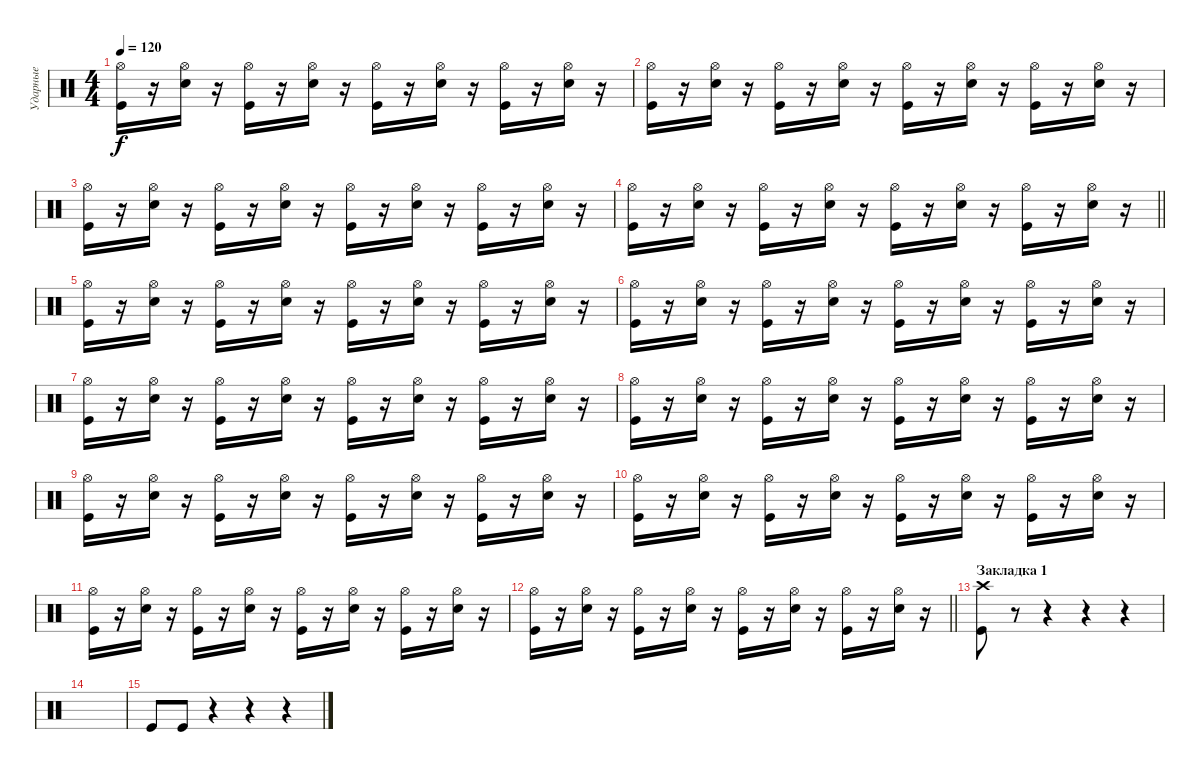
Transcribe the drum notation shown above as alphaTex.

\track ("Ударные" "Ударные") {instrument percussion}
\staff {score}
\articulation defaults
\ts (4 4)
\tempo 120
\clef neutral
\ks c
("Hi-Hat (open)" "Kick (hit)").16{dy f} r.16 ("Hi-Hat (open)" "Snare (hit) 2").16 r.16 ("Hi-Hat (open)" "Kick (hit)").16 r.16 ("Hi-Hat (open)" "Snare (hit) 2").16 r.16 ("Hi-Hat (open)" "Kick (hit)").16 r.16 ("Hi-Hat (open)" "Snare (hit) 2").16 r.16 ("Hi-Hat (open)" "Kick (hit)").16 r.16 ("Hi-Hat (open)" "Snare (hit) 2").16 r.16 |
("Hi-Hat (open)" "Kick (hit)").16 r.16 ("Hi-Hat (open)" "Snare (hit) 2").16 r.16 ("Hi-Hat (open)" "Kick (hit)").16 r.16 ("Hi-Hat (open)" "Snare (hit) 2").16 r.16 ("Hi-Hat (open)" "Kick (hit)").16 r.16 ("Hi-Hat (open)" "Snare (hit) 2").16 r.16 ("Hi-Hat (open)" "Kick (hit)").16 r.16 ("Hi-Hat (open)" "Snare (hit) 2").16 r.16 |
("Hi-Hat (open)" "Kick (hit)").16 r.16 ("Hi-Hat (open)" "Snare (hit) 2").16 r.16 ("Hi-Hat (open)" "Kick (hit)").16 r.16 ("Hi-Hat (open)" "Snare (hit) 2").16 r.16 ("Hi-Hat (open)" "Kick (hit)").16 r.16 ("Hi-Hat (open)" "Snare (hit) 2").16 r.16 ("Hi-Hat (open)" "Kick (hit)").16 r.16 ("Hi-Hat (open)" "Snare (hit) 2").16 r.16 |
\barLineRight lightlight
("Hi-Hat (open)" "Kick (hit)").16 r.16 ("Hi-Hat (open)" "Snare (hit) 2").16 r.16 ("Hi-Hat (open)" "Kick (hit)").16 r.16 ("Hi-Hat (open)" "Snare (hit) 2").16 r.16 ("Hi-Hat (open)" "Kick (hit)").16 r.16 ("Hi-Hat (open)" "Snare (hit) 2").16 r.16 ("Hi-Hat (open)" "Kick (hit)").16 r.16 ("Hi-Hat (open)" "Snare (hit) 2").16 r.16 |
("Hi-Hat (open)" "Kick (hit)").16 r.16 ("Hi-Hat (open)" "Snare (hit) 2").16 r.16 ("Hi-Hat (open)" "Kick (hit)").16 r.16 ("Hi-Hat (open)" "Snare (hit) 2").16 r.16 ("Hi-Hat (open)" "Kick (hit)").16 r.16 ("Hi-Hat (open)" "Snare (hit) 2").16 r.16 ("Hi-Hat (open)" "Kick (hit)").16 r.16 ("Hi-Hat (open)" "Snare (hit) 2").16 r.16 |
("Hi-Hat (open)" "Kick (hit)").16 r.16 ("Hi-Hat (open)" "Snare (hit) 2").16 r.16 ("Hi-Hat (open)" "Kick (hit)").16 r.16 ("Hi-Hat (open)" "Snare (hit) 2").16 r.16 ("Hi-Hat (open)" "Kick (hit)").16 r.16 ("Hi-Hat (open)" "Snare (hit) 2").16 r.16 ("Hi-Hat (open)" "Kick (hit)").16 r.16 ("Hi-Hat (open)" "Snare (hit) 2").16 r.16 |
("Hi-Hat (open)" "Kick (hit)").16 r.16 ("Hi-Hat (open)" "Snare (hit) 2").16 r.16 ("Hi-Hat (open)" "Kick (hit)").16 r.16 ("Hi-Hat (open)" "Snare (hit) 2").16 r.16 ("Hi-Hat (open)" "Kick (hit)").16 r.16 ("Hi-Hat (open)" "Snare (hit) 2").16 r.16 ("Hi-Hat (open)" "Kick (hit)").16 r.16 ("Hi-Hat (open)" "Snare (hit) 2").16 r.16 |
("Hi-Hat (open)" "Kick (hit)").16 r.16 ("Hi-Hat (open)" "Snare (hit) 2").16 r.16 ("Hi-Hat (open)" "Kick (hit)").16 r.16 ("Hi-Hat (open)" "Snare (hit) 2").16 r.16 ("Hi-Hat (open)" "Kick (hit)").16 r.16 ("Hi-Hat (open)" "Snare (hit) 2").16 r.16 ("Hi-Hat (open)" "Kick (hit)").16 r.16 ("Hi-Hat (open)" "Snare (hit) 2").16 r.16 |
("Hi-Hat (open)" "Kick (hit)").16 r.16 ("Hi-Hat (open)" "Snare (hit) 2").16 r.16 ("Hi-Hat (open)" "Kick (hit)").16 r.16 ("Hi-Hat (open)" "Snare (hit) 2").16 r.16 ("Hi-Hat (open)" "Kick (hit)").16 r.16 ("Hi-Hat (open)" "Snare (hit) 2").16 r.16 ("Hi-Hat (open)" "Kick (hit)").16 r.16 ("Hi-Hat (open)" "Snare (hit) 2").16 r.16 |
("Hi-Hat (open)" "Kick (hit)").16 r.16 ("Hi-Hat (open)" "Snare (hit) 2").16 r.16 ("Hi-Hat (open)" "Kick (hit)").16 r.16 ("Hi-Hat (open)" "Snare (hit) 2").16 r.16 ("Hi-Hat (open)" "Kick (hit)").16 r.16 ("Hi-Hat (open)" "Snare (hit) 2").16 r.16 ("Hi-Hat (open)" "Kick (hit)").16 r.16 ("Hi-Hat (open)" "Snare (hit) 2").16 r.16 |
("Hi-Hat (open)" "Kick (hit)").16 r.16 ("Hi-Hat (open)" "Snare (hit) 2").16 r.16 ("Hi-Hat (open)" "Kick (hit)").16 r.16 ("Hi-Hat (open)" "Snare (hit) 2").16 r.16 ("Hi-Hat (open)" "Kick (hit)").16 r.16 ("Hi-Hat (open)" "Snare (hit) 2").16 r.16 ("Hi-Hat (open)" "Kick (hit)").16 r.16 ("Hi-Hat (open)" "Snare (hit) 2").16 r.16 |
\barLineRight lightlight
("Hi-Hat (open)" "Kick (hit)").16 r.16 ("Hi-Hat (open)" "Snare (hit) 2").16 r.16 ("Hi-Hat (open)" "Kick (hit)").16 r.16 ("Hi-Hat (open)" "Snare (hit) 2").16 r.16 ("Hi-Hat (open)" "Kick (hit)").16 r.16 ("Hi-Hat (open)" "Snare (hit) 2").16 r.16 ("Hi-Hat (open)" "Kick (hit)").16 r.16 ("Hi-Hat (open)" "Snare (hit) 2").16 r.16 |
\section ("" "Закладка 1")
("Crash high (hit)" "Kick (hit)").8 r.8 r.4 r.4 r.4 |
|
"Kick (hit)".8 "Kick (hit)".8 r.4 r.4 r.4
